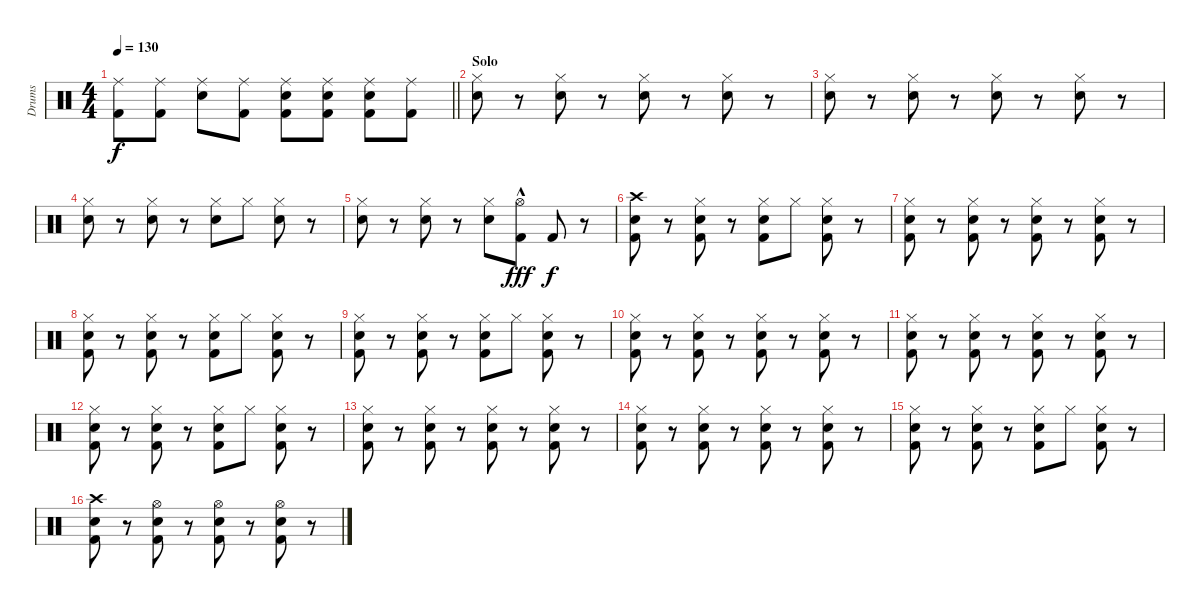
\track ("Drums" "Drums") {instrument percussion}
\staff {score}
\articulation defaults
\ts (4 4)
\tempo 130
\clef neutral
\barLineRight lightlight
\ks c
("Ride (middle)" "Kick (hit) 2").8{dy f} ("Ride (middle)" "Kick (hit) 2").8 ("Ride (middle)" "Snare (hit) 2").8 ("Ride (middle)" "Kick (hit) 2").8 ("Ride (middle)" "Snare (hit) 2" "Kick (hit) 2").8 ("Ride (middle)" "Snare (hit) 2" "Kick (hit) 2").8 ("Ride (middle)" "Snare (hit) 2" "Kick (hit) 2").8 ("Ride (middle)" "Kick (hit) 2").8 |
\section ("" "Solo")
("Hi-Hat (closed)" "Snare (hit) 2").8 r.8 ("Hi-Hat (closed)" "Snare (hit) 2").8 r.8 ("Hi-Hat (closed)" "Snare (hit) 2").8 r.8 ("Hi-Hat (closed)" "Snare (hit) 2").8 r.8 |
("Hi-Hat (closed)" "Snare (hit) 2").8 r.8 ("Hi-Hat (closed)" "Snare (hit) 2").8 r.8 ("Hi-Hat (closed)" "Snare (hit) 2").8 r.8 ("Hi-Hat (closed)" "Snare (hit) 2").8 r.8 |
("Hi-Hat (closed)" "Snare (hit) 2").8 r.8 ("Hi-Hat (closed)" "Snare (hit) 2").8 r.8 ("Hi-Hat (closed)" "Snare (hit) 2").8 "Hi-Hat (closed)".8 ("Hi-Hat (closed)" "Snare (hit) 2").8 r.8 |
("Hi-Hat (closed)" "Snare (hit) 2").8 r.8 ("Hi-Hat (closed)" "Snare (hit) 2").8 r.8 ("Hi-Hat (closed)" "Snare (hit) 2").8 ("Hi-Hat (open)" "Kick (hit) 2"{hac}).8{dy fff} "Kick (hit) 2".8{dy f} r.8 |
("Crash high (hit)" "Snare (hit) 2" "Kick (hit) 2").8 r.8 ("Hi-Hat (closed)" "Snare (hit) 2" "Kick (hit) 2").8 r.8 ("Hi-Hat (closed)" "Snare (hit) 2" "Kick (hit) 2").8 "Hi-Hat (closed)".8 ("Hi-Hat (closed)" "Snare (hit) 2" "Kick (hit) 2").8 r.8 |
("Hi-Hat (closed)" "Snare (hit) 2" "Kick (hit) 2").8 r.8 ("Hi-Hat (closed)" "Snare (hit) 2" "Kick (hit) 2").8 r.8 ("Hi-Hat (closed)" "Snare (hit) 2" "Kick (hit) 2").8 r.8 ("Hi-Hat (closed)" "Snare (hit) 2" "Kick (hit) 2").8 r.8 |
("Hi-Hat (closed)" "Snare (hit) 2" "Kick (hit) 2").8 r.8 ("Hi-Hat (closed)" "Snare (hit) 2" "Kick (hit) 2").8 r.8 ("Hi-Hat (closed)" "Snare (hit) 2" "Kick (hit) 2").8 "Hi-Hat (closed)".8 ("Hi-Hat (closed)" "Snare (hit) 2" "Kick (hit) 2").8 r.8 |
("Hi-Hat (closed)" "Snare (hit) 2" "Kick (hit) 2").8 r.8 ("Hi-Hat (closed)" "Snare (hit) 2" "Kick (hit) 2").8 r.8 ("Hi-Hat (closed)" "Snare (hit) 2" "Kick (hit) 2").8 "Hi-Hat (closed)".8 ("Hi-Hat (closed)" "Snare (hit) 2" "Kick (hit) 2").8 r.8 |
("Hi-Hat (closed)" "Snare (hit) 2" "Kick (hit) 2").8 r.8 ("Hi-Hat (closed)" "Snare (hit) 2" "Kick (hit) 2").8 r.8 ("Hi-Hat (closed)" "Snare (hit) 2" "Kick (hit) 2").8 r.8 ("Hi-Hat (closed)" "Snare (hit) 2" "Kick (hit) 2").8 r.8 |
("Hi-Hat (closed)" "Snare (hit) 2" "Kick (hit) 2").8 r.8 ("Hi-Hat (closed)" "Snare (hit) 2" "Kick (hit) 2").8 r.8 ("Hi-Hat (closed)" "Snare (hit) 2" "Kick (hit) 2").8 r.8 ("Hi-Hat (closed)" "Snare (hit) 2" "Kick (hit) 2").8 r.8 |
("Hi-Hat (closed)" "Snare (hit) 2" "Kick (hit) 2").8 r.8 ("Hi-Hat (closed)" "Snare (hit) 2" "Kick (hit) 2").8 r.8 ("Hi-Hat (closed)" "Snare (hit) 2" "Kick (hit) 2").8 "Hi-Hat (closed)".8 ("Hi-Hat (closed)" "Snare (hit) 2" "Kick (hit) 2").8 r.8 |
("Hi-Hat (closed)" "Snare (hit) 2" "Kick (hit) 2").8 r.8 ("Hi-Hat (closed)" "Snare (hit) 2" "Kick (hit) 2").8 r.8 ("Hi-Hat (closed)" "Snare (hit) 2" "Kick (hit) 2").8 r.8 ("Hi-Hat (closed)" "Snare (hit) 2" "Kick (hit) 2").8 r.8 |
("Hi-Hat (closed)" "Snare (hit) 2" "Kick (hit) 2").8 r.8 ("Hi-Hat (closed)" "Snare (hit) 2" "Kick (hit) 2").8 r.8 ("Hi-Hat (closed)" "Snare (hit) 2" "Kick (hit) 2").8 r.8 ("Hi-Hat (closed)" "Snare (hit) 2" "Kick (hit) 2").8 r.8 |
("Hi-Hat (closed)" "Snare (hit) 2" "Kick (hit) 2").8 r.8 ("Hi-Hat (closed)" "Snare (hit) 2" "Kick (hit) 2").8 r.8 ("Hi-Hat (closed)" "Snare (hit) 2" "Kick (hit) 2").8 "Hi-Hat (closed)".8 ("Hi-Hat (closed)" "Snare (hit) 2" "Kick (hit) 2").8 r.8 |
("Crash high (hit)" "Snare (hit) 2" "Kick (hit) 2").8 r.8 ("Hi-Hat (open)" "Snare (hit) 2" "Kick (hit) 2").8 r.8 ("Hi-Hat (open)" "Snare (hit) 2" "Kick (hit) 2").8 r.8 ("Hi-Hat (open)" "Snare (hit) 2" "Kick (hit) 2").8 r.8
